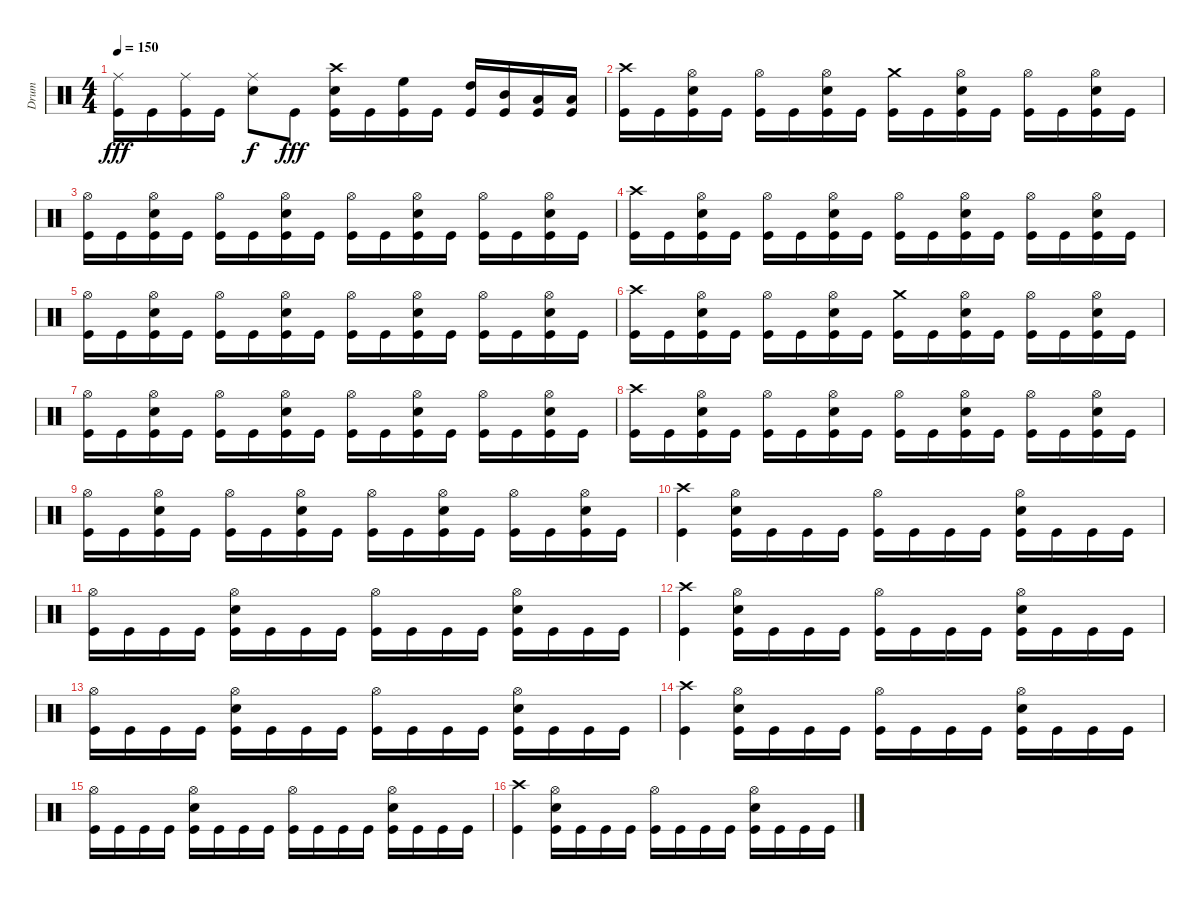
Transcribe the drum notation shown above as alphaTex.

\track ("Drum" "Drum") {instrument percussion}
\staff {score}
\articulation defaults
\ts (4 4)
\tempo 150
\clef neutral
\ks c
("Ride (middle)" "Kick (hit)").16{dy fff} "Kick (hit)".16 ("Ride (middle)" "Kick (hit)").16 "Kick (hit)".16 ("Ride (middle)" "Snare (hit) 2").8{dy f} "Kick (hit)".8{dy fff} ("Crash high (hit)" "Snare (hit) 2" "Kick (hit)").16 "Kick (hit)".16 ("High Floor Tom (hit)" "Kick (hit)").16 "Kick (hit)".16 ("High Tom (hit)" "Kick (hit)").16 ("Mid Tom (hit)" "Kick (hit)").16 ("Low Tom (hit)" "Kick (hit)").16 ("Low Tom (hit)" "Kick (hit)").16 |
("Crash high (hit)" "Kick (hit)").16 "Kick (hit)".16 ("Hi-Hat (open)" "Snare (hit) 2" "Kick (hit)").16 "Kick (hit)".16 ("Hi-Hat (open)" "Kick (hit)").16 "Kick (hit)".16 ("Hi-Hat (open)" "Snare (hit) 2" "Kick (hit)").16 "Kick (hit)".16 ("Crash medium (hit)" "Kick (hit)").16 "Kick (hit)".16 ("Hi-Hat (open)" "Snare (hit) 2" "Kick (hit)").16 "Kick (hit)".16 ("Hi-Hat (open)" "Kick (hit)").16 "Kick (hit)".16 ("Hi-Hat (open)" "Snare (hit) 2" "Kick (hit)").16 "Kick (hit)".16 |
("Hi-Hat (open)" "Kick (hit)").16 "Kick (hit)".16 ("Hi-Hat (open)" "Snare (hit) 2" "Kick (hit)").16 "Kick (hit)".16 ("Hi-Hat (open)" "Kick (hit)").16 "Kick (hit)".16 ("Hi-Hat (open)" "Snare (hit) 2" "Kick (hit)").16 "Kick (hit)".16 ("Hi-Hat (open)" "Kick (hit)").16 "Kick (hit)".16 ("Hi-Hat (open)" "Snare (hit) 2" "Kick (hit)").16 "Kick (hit)".16 ("Hi-Hat (open)" "Kick (hit)").16 "Kick (hit)".16 ("Hi-Hat (open)" "Snare (hit) 2" "Kick (hit)").16 "Kick (hit)".16 |
("Crash high (hit)" "Kick (hit)").16 "Kick (hit)".16 ("Hi-Hat (open)" "Snare (hit) 2" "Kick (hit)").16 "Kick (hit)".16 ("Hi-Hat (open)" "Kick (hit)").16 "Kick (hit)".16 ("Hi-Hat (open)" "Snare (hit) 2" "Kick (hit)").16 "Kick (hit)".16 ("Hi-Hat (open)" "Kick (hit)").16 "Kick (hit)".16 ("Hi-Hat (open)" "Snare (hit) 2" "Kick (hit)").16 "Kick (hit)".16 ("Hi-Hat (open)" "Kick (hit)").16 "Kick (hit)".16 ("Hi-Hat (open)" "Snare (hit) 2" "Kick (hit)").16 "Kick (hit)".16 |
("Hi-Hat (open)" "Kick (hit)").16 "Kick (hit)".16 ("Hi-Hat (open)" "Snare (hit) 2" "Kick (hit)").16 "Kick (hit)".16 ("Hi-Hat (open)" "Kick (hit)").16 "Kick (hit)".16 ("Hi-Hat (open)" "Snare (hit) 2" "Kick (hit)").16 "Kick (hit)".16 ("Hi-Hat (open)" "Kick (hit)").16 "Kick (hit)".16 ("Hi-Hat (open)" "Snare (hit) 2" "Kick (hit)").16 "Kick (hit)".16 ("Hi-Hat (open)" "Kick (hit)").16 "Kick (hit)".16 ("Hi-Hat (open)" "Snare (hit) 2" "Kick (hit)").16 "Kick (hit)".16 |
("Crash high (hit)" "Kick (hit)").16 "Kick (hit)".16 ("Hi-Hat (open)" "Snare (hit) 2" "Kick (hit)").16 "Kick (hit)".16 ("Hi-Hat (open)" "Kick (hit)").16 "Kick (hit)".16 ("Hi-Hat (open)" "Snare (hit) 2" "Kick (hit)").16 "Kick (hit)".16 ("Crash medium (hit)" "Kick (hit)").16 "Kick (hit)".16 ("Hi-Hat (open)" "Snare (hit) 2" "Kick (hit)").16 "Kick (hit)".16 ("Hi-Hat (open)" "Kick (hit)").16 "Kick (hit)".16 ("Hi-Hat (open)" "Snare (hit) 2" "Kick (hit)").16 "Kick (hit)".16 |
("Hi-Hat (open)" "Kick (hit)").16 "Kick (hit)".16 ("Hi-Hat (open)" "Snare (hit) 2" "Kick (hit)").16 "Kick (hit)".16 ("Hi-Hat (open)" "Kick (hit)").16 "Kick (hit)".16 ("Hi-Hat (open)" "Snare (hit) 2" "Kick (hit)").16 "Kick (hit)".16 ("Hi-Hat (open)" "Kick (hit)").16 "Kick (hit)".16 ("Hi-Hat (open)" "Snare (hit) 2" "Kick (hit)").16 "Kick (hit)".16 ("Hi-Hat (open)" "Kick (hit)").16 "Kick (hit)".16 ("Hi-Hat (open)" "Snare (hit) 2" "Kick (hit)").16 "Kick (hit)".16 |
("Crash high (hit)" "Kick (hit)").16 "Kick (hit)".16 ("Hi-Hat (open)" "Snare (hit) 2" "Kick (hit)").16 "Kick (hit)".16 ("Hi-Hat (open)" "Kick (hit)").16 "Kick (hit)".16 ("Hi-Hat (open)" "Snare (hit) 2" "Kick (hit)").16 "Kick (hit)".16 ("Hi-Hat (open)" "Kick (hit)").16 "Kick (hit)".16 ("Hi-Hat (open)" "Snare (hit) 2" "Kick (hit)").16 "Kick (hit)".16 ("Hi-Hat (open)" "Kick (hit)").16 "Kick (hit)".16 ("Hi-Hat (open)" "Snare (hit) 2" "Kick (hit)").16 "Kick (hit)".16 |
("Hi-Hat (open)" "Kick (hit)").16 "Kick (hit)".16 ("Hi-Hat (open)" "Snare (hit) 2" "Kick (hit)").16 "Kick (hit)".16 ("Hi-Hat (open)" "Kick (hit)").16 "Kick (hit)".16 ("Hi-Hat (open)" "Snare (hit) 2" "Kick (hit)").16 "Kick (hit)".16 ("Hi-Hat (open)" "Kick (hit)").16 "Kick (hit)".16 ("Hi-Hat (open)" "Snare (hit) 2" "Kick (hit)").16 "Kick (hit)".16 ("Hi-Hat (open)" "Kick (hit)").16 "Kick (hit)".16 ("Hi-Hat (open)" "Snare (hit) 2" "Kick (hit)").16 "Kick (hit)".16 |
("Crash high (hit)" "Kick (hit)").4 ("Hi-Hat (open)" "Snare (hit) 2" "Kick (hit)").16 "Kick (hit)".16 "Kick (hit)".16 "Kick (hit)".16 ("Hi-Hat (open)" "Kick (hit)").16 "Kick (hit)".16 "Kick (hit)".16 "Kick (hit)".16 ("Hi-Hat (open)" "Snare (hit) 2" "Kick (hit)").16 "Kick (hit)".16 "Kick (hit)".16 "Kick (hit)".16 |
("Hi-Hat (open)" "Kick (hit)").16 "Kick (hit)".16 "Kick (hit)".16 "Kick (hit)".16 ("Hi-Hat (open)" "Snare (hit) 2" "Kick (hit)").16 "Kick (hit)".16 "Kick (hit)".16 "Kick (hit)".16 ("Hi-Hat (open)" "Kick (hit)").16 "Kick (hit)".16 "Kick (hit)".16 "Kick (hit)".16 ("Hi-Hat (open)" "Snare (hit) 2" "Kick (hit)").16 "Kick (hit)".16 "Kick (hit)".16 "Kick (hit)".16 |
("Crash high (hit)" "Kick (hit)").4 ("Hi-Hat (open)" "Snare (hit) 2" "Kick (hit)").16 "Kick (hit)".16 "Kick (hit)".16 "Kick (hit)".16 ("Hi-Hat (open)" "Kick (hit)").16 "Kick (hit)".16 "Kick (hit)".16 "Kick (hit)".16 ("Hi-Hat (open)" "Snare (hit) 2" "Kick (hit)").16 "Kick (hit)".16 "Kick (hit)".16 "Kick (hit)".16 |
("Hi-Hat (open)" "Kick (hit)").16 "Kick (hit)".16 "Kick (hit)".16 "Kick (hit)".16 ("Hi-Hat (open)" "Snare (hit) 2" "Kick (hit)").16 "Kick (hit)".16 "Kick (hit)".16 "Kick (hit)".16 ("Hi-Hat (open)" "Kick (hit)").16 "Kick (hit)".16 "Kick (hit)".16 "Kick (hit)".16 ("Hi-Hat (open)" "Snare (hit) 2" "Kick (hit)").16 "Kick (hit)".16 "Kick (hit)".16 "Kick (hit)".16 |
("Crash high (hit)" "Kick (hit)").4 ("Hi-Hat (open)" "Snare (hit) 2" "Kick (hit)").16 "Kick (hit)".16 "Kick (hit)".16 "Kick (hit)".16 ("Hi-Hat (open)" "Kick (hit)").16 "Kick (hit)".16 "Kick (hit)".16 "Kick (hit)".16 ("Hi-Hat (open)" "Snare (hit) 2" "Kick (hit)").16 "Kick (hit)".16 "Kick (hit)".16 "Kick (hit)".16 |
("Hi-Hat (open)" "Kick (hit)").16 "Kick (hit)".16 "Kick (hit)".16 "Kick (hit)".16 ("Hi-Hat (open)" "Snare (hit) 2" "Kick (hit)").16 "Kick (hit)".16 "Kick (hit)".16 "Kick (hit)".16 ("Hi-Hat (open)" "Kick (hit)").16 "Kick (hit)".16 "Kick (hit)".16 "Kick (hit)".16 ("Hi-Hat (open)" "Snare (hit) 2" "Kick (hit)").16 "Kick (hit)".16 "Kick (hit)".16 "Kick (hit)".16 |
("Crash high (hit)" "Kick (hit)").4 ("Hi-Hat (open)" "Snare (hit) 2" "Kick (hit)").16 "Kick (hit)".16 "Kick (hit)".16 "Kick (hit)".16 ("Hi-Hat (open)" "Kick (hit)").16 "Kick (hit)".16 "Kick (hit)".16 "Kick (hit)".16 ("Hi-Hat (open)" "Snare (hit) 2" "Kick (hit)").16 "Kick (hit)".16 "Kick (hit)".16 "Kick (hit)".16
